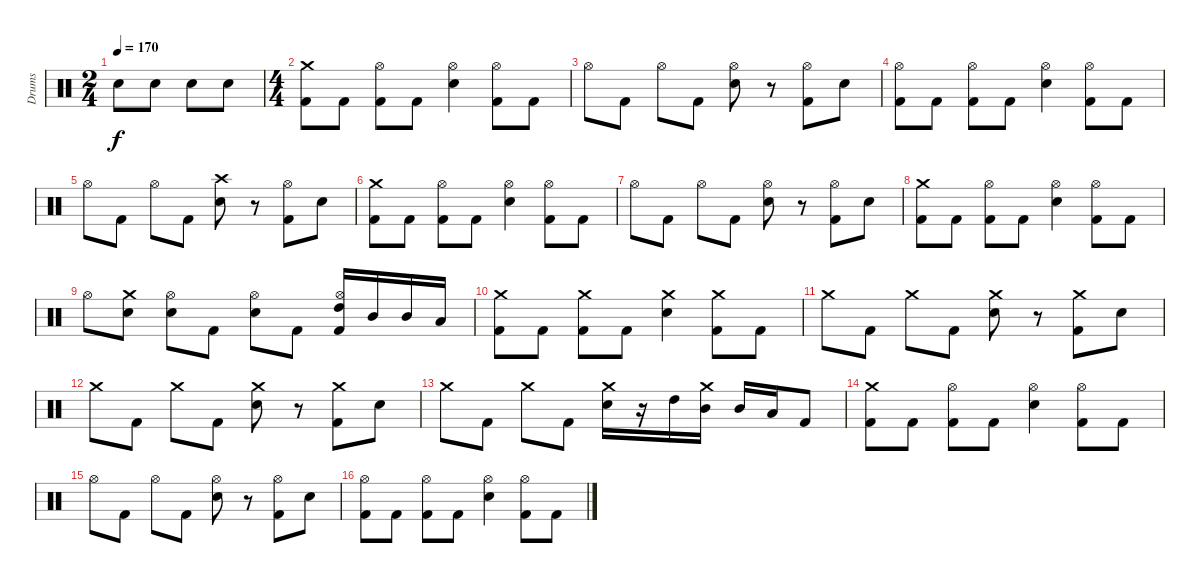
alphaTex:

\track ("Drums" "Drums") {instrument percussion}
\staff {score}
\articulation defaults
\ts (2 4)
\tempo 170
\clef neutral
\ks c "Snare (hit) 2".8{dy f} "Snare (hit) 2".8 "Snare (hit) 2".8 "Snare (hit) 2".8
|
\ts (4 4)
("Crash medium (hit)" "Kick (hit) 2").8{volume 13} "Kick (hit) 2".8 ("Hi-Hat (open)" "Kick (hit) 2").8 "Kick (hit) 2".8 ("Hi-Hat (open)" "Snare (hit) 2").4 ("Hi-Hat (open)" "Kick (hit) 2").8 "Kick (hit) 2".8 |
"Hi-Hat (open)".8 "Kick (hit) 2".8 "Hi-Hat (open)".8 "Kick (hit) 2".8 ("Hi-Hat (open)" "Snare (hit) 2").8 r.8 ("Hi-Hat (open)" "Kick (hit) 2").8 "Snare (hit) 2".8 |
("Hi-Hat (open)" "Kick (hit) 2").8 "Kick (hit) 2".8 ("Hi-Hat (open)" "Kick (hit) 2").8 "Kick (hit) 2".8 ("Hi-Hat (open)" "Snare (hit) 2").4 ("Hi-Hat (open)" "Kick (hit) 2").8 "Kick (hit) 2".8 |
"Hi-Hat (open)".8 "Kick (hit) 2".8 "Hi-Hat (open)".8 "Kick (hit) 2".8 ("Crash high (hit)" "Snare (hit) 2").8 r.8 ("Hi-Hat (open)" "Kick (hit) 2").8 "Snare (hit) 2".8 |
("Crash medium (hit)" "Kick (hit) 2").8 "Kick (hit) 2".8 ("Hi-Hat (open)" "Kick (hit) 2").8 "Kick (hit) 2".8 ("Hi-Hat (open)" "Snare (hit) 2").4 ("Hi-Hat (open)" "Kick (hit) 2").8 "Kick (hit) 2".8 |
"Hi-Hat (open)".8 "Kick (hit) 2".8 "Hi-Hat (open)".8 "Kick (hit) 2".8 ("Hi-Hat (open)" "Snare (hit) 2").8 r.8 ("Hi-Hat (open)" "Kick (hit) 2").8 "Snare (hit) 2".8 |
("Crash medium (hit)" "Kick (hit) 2").8 "Kick (hit) 2".8 ("Hi-Hat (open)" "Kick (hit) 2").8 "Kick (hit) 2".8 ("Hi-Hat (open)" "Snare (hit) 2").4 ("Hi-Hat (open)" "Kick (hit) 2").8 "Kick (hit) 2".8 |
"Hi-Hat (open)".8 ("Crash medium (hit)" "Snare (hit) 2").8 ("Hi-Hat (open)" "Snare (hit) 2").8 "Kick (hit) 2".8 ("Hi-Hat (open)" "Snare (hit) 2").8 "Kick (hit) 2".8 ("Hi-Hat (open)" "High Tom (hit)" "Kick (hit) 2").16 "Mid Tom (hit)".16 "Mid Tom (hit)".16 "Low Tom (hit)".16 |
("Crash medium (hit)" "Kick (hit) 2").8 "Kick (hit) 2".8 ("Crash medium (hit)" "Kick (hit) 2").8 "Kick (hit) 2".8 ("Crash medium (hit)" "Snare (hit) 2").4 ("Crash medium (hit)" "Kick (hit) 2").8 "Kick (hit) 2".8 |
"Crash medium (hit)".8 "Kick (hit) 2".8 "Crash medium (hit)".8 "Kick (hit) 2".8 ("Crash medium (hit)" "Snare (hit) 2").8 r.8 ("Crash medium (hit)" "Kick (hit) 2").8 "Snare (hit) 2".8 |
"Crash medium (hit)".8 "Kick (hit) 2".8 "Crash medium (hit)".8 "Kick (hit) 2".8 ("Crash medium (hit)" "Snare (hit) 2").8 r.8 ("Crash medium (hit)" "Kick (hit) 2").8 "Snare (hit) 2".8 |
"Crash medium (hit)".8 "Kick (hit) 2".8 "Crash medium (hit)".8 "Kick (hit) 2".8 ("Crash medium (hit)" "Snare (hit) 2").16 r.16 "High Tom (hit)".16 ("Crash medium (hit)" "Mid Tom (hit)").16 "Mid Tom (hit)".16 "Low Tom (hit)".16 "Kick (hit) 2".8 |
("Crash medium (hit)" "Kick (hit) 2").8{volume 13} "Kick (hit) 2".8 ("Hi-Hat (open)" "Kick (hit) 2").8 "Kick (hit) 2".8 ("Hi-Hat (open)" "Snare (hit) 2").4 ("Hi-Hat (open)" "Kick (hit) 2").8 "Kick (hit) 2".8 |
"Hi-Hat (open)".8 "Kick (hit) 2".8 "Hi-Hat (open)".8 "Kick (hit) 2".8 ("Hi-Hat (open)" "Snare (hit) 2").8 r.8 ("Hi-Hat (open)" "Kick (hit) 2").8 "Snare (hit) 2".8 |
("Hi-Hat (open)" "Kick (hit) 2").8 "Kick (hit) 2".8 ("Hi-Hat (open)" "Kick (hit) 2").8 "Kick (hit) 2".8 ("Hi-Hat (open)" "Snare (hit) 2").4 ("Hi-Hat (open)" "Kick (hit) 2").8 "Kick (hit) 2".8
